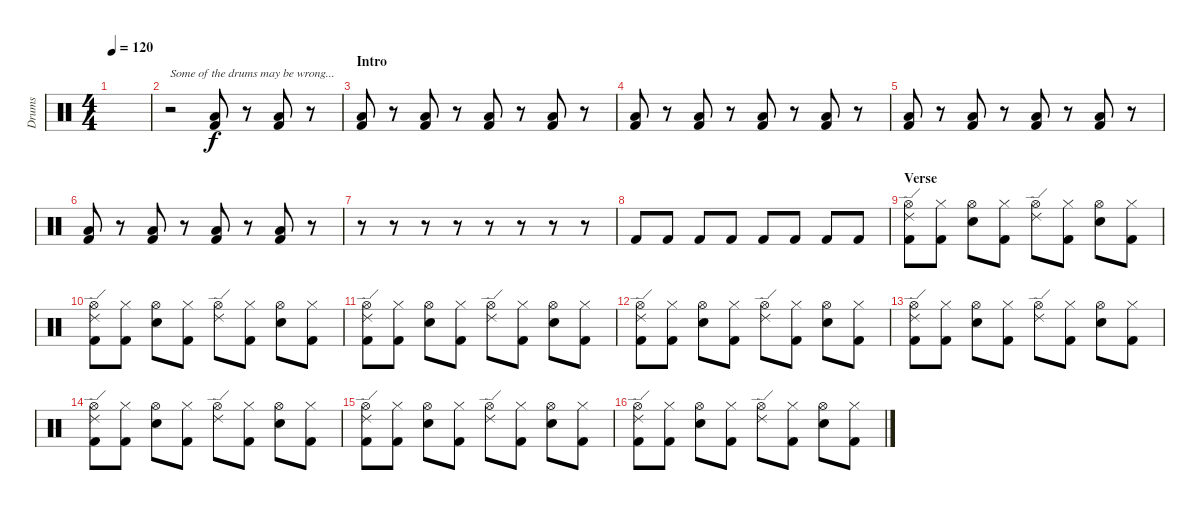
\track ("Drums" "Drums") {instrument percussion}
\staff {score}
\articulation defaults
\ts (4 4)
\tempo 120
\clef neutral
\ks c
|
r.2{txt "Some of the drums may be wrong..."} ("Kick (hit) 2" "Low Floor Tom (hit)").8 r.8 ("Kick (hit) 2" "Low Floor Tom (hit)").8 r.8 |
\section ("" "Intro")
("Kick (hit) 2" "Low Floor Tom (hit)").8 r.8 ("Kick (hit) 2" "Low Floor Tom (hit)").8 r.8 ("Kick (hit) 2" "Low Floor Tom (hit)").8 r.8 ("Kick (hit) 2" "Low Floor Tom (hit)").8 r.8 |
("Kick (hit) 2" "Low Floor Tom (hit)").8 r.8 ("Kick (hit) 2" "Low Floor Tom (hit)").8 r.8 ("Kick (hit) 2" "Low Floor Tom (hit)").8 r.8 ("Kick (hit) 2" "Low Floor Tom (hit)").8 r.8 |
("Kick (hit) 2" "Low Floor Tom (hit)").8 r.8 ("Kick (hit) 2" "Low Floor Tom (hit)").8 r.8 ("Kick (hit) 2" "Low Floor Tom (hit)").8 r.8 ("Kick (hit) 2" "Low Floor Tom (hit)").8 r.8 |
("Kick (hit) 2" "Low Floor Tom (hit)").8 r.8 ("Kick (hit) 2" "Low Floor Tom (hit)").8 r.8 ("Kick (hit) 2" "Low Floor Tom (hit)").8 r.8 ("Kick (hit) 2" "Low Floor Tom (hit)").8 r.8 |
r.8 r.8 r.8 r.8 r.8 r.8 r.8 r.8{volume 0} |
"Kick (hit) 2".8{volume 13} "Kick (hit) 2".8 "Kick (hit) 2".8 "Kick (hit) 2".8 "Kick (hit) 2".8 "Kick (hit) 2".8 "Kick (hit) 2".8 "Kick (hit) 2".8 |
\section ("" "Verse")
("Hi-Hat (open)" "Ride (edge) 2" "Kick (hit) 2").8 ("Hi-Hat (closed)" "Kick (hit) 2").8 ("Hi-Hat (open)" "Snare (hit) 2").8 ("Hi-Hat (closed)" "Kick (hit) 2").8 ("Hi-Hat (open)" "Ride (edge) 2").8 ("Hi-Hat (closed)" "Kick (hit) 2").8 ("Hi-Hat (open)" "Snare (hit) 2").8 ("Hi-Hat (closed)" "Kick (hit) 2").8 |
("Hi-Hat (open)" "Ride (edge) 2" "Kick (hit) 2").8 ("Hi-Hat (closed)" "Kick (hit) 2").8 ("Hi-Hat (open)" "Snare (hit) 2").8 ("Hi-Hat (closed)" "Kick (hit) 2").8 ("Hi-Hat (open)" "Ride (edge) 2").8 ("Hi-Hat (closed)" "Kick (hit) 2").8 ("Hi-Hat (open)" "Snare (hit) 2").8 ("Hi-Hat (closed)" "Kick (hit) 2").8 |
("Hi-Hat (open)" "Ride (edge) 2" "Kick (hit) 2").8 ("Hi-Hat (closed)" "Kick (hit) 2").8 ("Hi-Hat (open)" "Snare (hit) 2").8 ("Hi-Hat (closed)" "Kick (hit) 2").8 ("Hi-Hat (open)" "Ride (edge) 2").8 ("Hi-Hat (closed)" "Kick (hit) 2").8 ("Hi-Hat (open)" "Snare (hit) 2").8 ("Hi-Hat (closed)" "Kick (hit) 2").8 |
("Hi-Hat (open)" "Ride (edge) 2" "Kick (hit) 2").8 ("Hi-Hat (closed)" "Kick (hit) 2").8 ("Hi-Hat (open)" "Snare (hit) 2").8 ("Hi-Hat (closed)" "Kick (hit) 2").8 ("Hi-Hat (open)" "Ride (edge) 2").8 ("Hi-Hat (closed)" "Kick (hit) 2").8 ("Hi-Hat (open)" "Snare (hit) 2").8 ("Hi-Hat (closed)" "Kick (hit) 2").8 |
("Hi-Hat (open)" "Ride (edge) 2" "Kick (hit) 2").8 ("Hi-Hat (closed)" "Kick (hit) 2").8 ("Hi-Hat (open)" "Snare (hit) 2").8 ("Hi-Hat (closed)" "Kick (hit) 2").8 ("Hi-Hat (open)" "Ride (edge) 2").8 ("Hi-Hat (closed)" "Kick (hit) 2").8 ("Hi-Hat (open)" "Snare (hit) 2").8 ("Hi-Hat (closed)" "Kick (hit) 2").8 |
("Hi-Hat (open)" "Ride (edge) 2" "Kick (hit) 2").8 ("Hi-Hat (closed)" "Kick (hit) 2").8 ("Hi-Hat (open)" "Snare (hit) 2").8 ("Hi-Hat (closed)" "Kick (hit) 2").8 ("Hi-Hat (open)" "Ride (edge) 2").8 ("Hi-Hat (closed)" "Kick (hit) 2").8 ("Hi-Hat (open)" "Snare (hit) 2").8 ("Hi-Hat (closed)" "Kick (hit) 2").8 |
("Hi-Hat (open)" "Ride (edge) 2" "Kick (hit) 2").8 ("Hi-Hat (closed)" "Kick (hit) 2").8 ("Hi-Hat (open)" "Snare (hit) 2").8 ("Hi-Hat (closed)" "Kick (hit) 2").8 ("Hi-Hat (open)" "Ride (edge) 2").8 ("Hi-Hat (closed)" "Kick (hit) 2").8 ("Hi-Hat (open)" "Snare (hit) 2").8 ("Hi-Hat (closed)" "Kick (hit) 2").8 |
("Hi-Hat (open)" "Ride (edge) 2" "Kick (hit) 2").8 ("Hi-Hat (closed)" "Kick (hit) 2").8 ("Hi-Hat (open)" "Snare (hit) 2").8 ("Hi-Hat (closed)" "Kick (hit) 2").8 ("Hi-Hat (open)" "Ride (edge) 2").8 ("Hi-Hat (closed)" "Kick (hit) 2").8 ("Hi-Hat (open)" "Snare (hit) 2").8 ("Hi-Hat (closed)" "Kick (hit) 2").8
